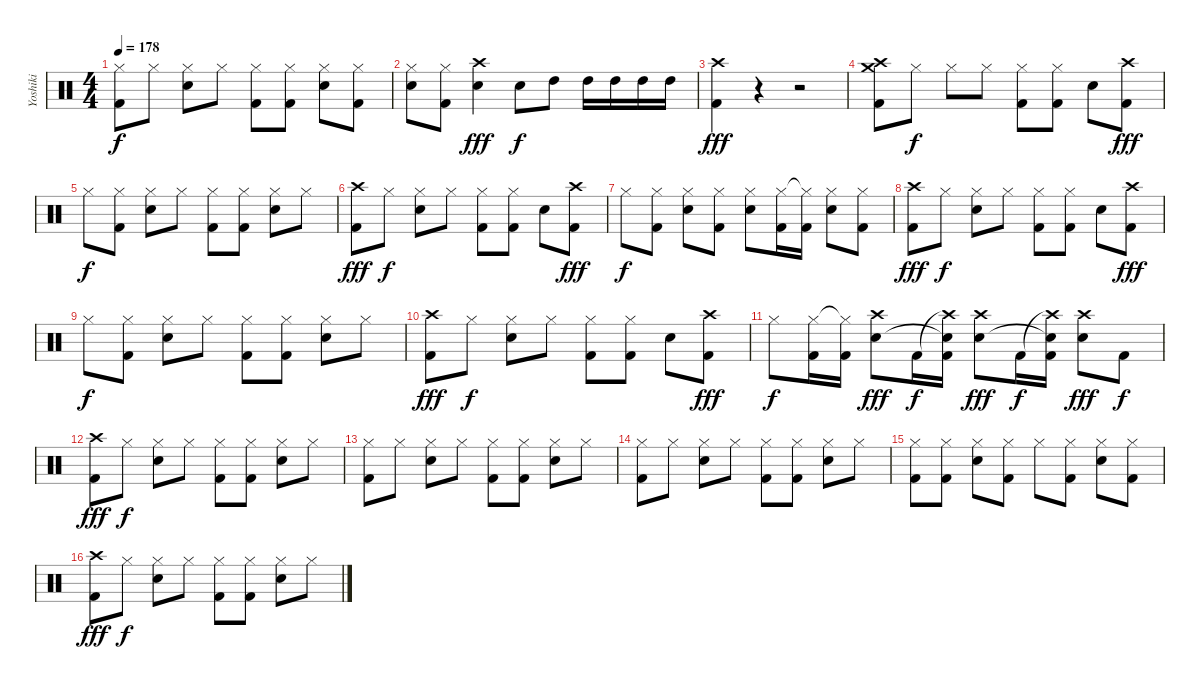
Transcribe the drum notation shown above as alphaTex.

\track ("Yoshiki" "Yoshiki") {instrument percussion}
\staff {score}
\articulation defaults
\ts (4 4)
\tempo 178
\clef neutral
\ks c
("Hi-Hat (closed)" "Kick (hit) 2").8{dy f} "Hi-Hat (closed)".8 ("Hi-Hat (closed)" "Snare (hit) 2").8 "Hi-Hat (closed)".8 ("Hi-Hat (closed)" "Kick (hit) 2").8 ("Hi-Hat (closed)" "Kick (hit) 2").8 ("Hi-Hat (closed)" "Snare (hit) 2").8 ("Hi-Hat (closed)" "Kick (hit) 2").8 |
("Hi-Hat (closed)" "Snare (hit) 2").8 ("Hi-Hat (closed)" "Kick (hit) 2").8 ("Crash high (hit)" "Snare (hit) 2").4{dy fff} "Snare (hit) 2".8{dy f} "High Tom (hit)".8 "High Tom (hit)".16 "High Tom (hit)".16 "High Tom (hit)".16 "High Tom (hit)".16 |
("Crash high (hit)" "Kick (hit) 2").4{dy fff} r.4 r.2 |
("Crash medium (hit)" "Crash high (hit)" "Kick (hit) 2").8 "Hi-Hat (closed)".8{dy f} "Hi-Hat (closed)".8 "Hi-Hat (closed)".8 ("Hi-Hat (closed)" "Kick (hit) 2").8 ("Hi-Hat (closed)" "Kick (hit) 2").8 "Snare (hit) 2".8 ("Crash high (hit)" "Kick (hit) 2").8{dy fff} |
"Hi-Hat (closed)".8{dy f} ("Hi-Hat (closed)" "Kick (hit) 2").8 ("Hi-Hat (closed)" "Snare (hit) 2").8 "Hi-Hat (closed)".8 ("Hi-Hat (closed)" "Kick (hit) 2").8 ("Hi-Hat (closed)" "Kick (hit) 2").8 ("Hi-Hat (closed)" "Snare (hit) 2").8 "Hi-Hat (closed)".8 |
("Crash high (hit)" "Kick (hit) 2").8{dy fff} "Hi-Hat (closed)".8{dy f} ("Hi-Hat (closed)" "Snare (hit) 2").8 "Hi-Hat (closed)".8 ("Hi-Hat (closed)" "Kick (hit) 2").8 ("Hi-Hat (closed)" "Kick (hit) 2").8 "Snare (hit) 2".8 ("Crash high (hit)" "Kick (hit) 2").8{dy fff} |
"Hi-Hat (closed)".8{dy f} ("Hi-Hat (closed)" "Kick (hit) 2").8 ("Hi-Hat (closed)" "Snare (hit) 2").8 ("Hi-Hat (closed)" "Kick (hit) 2").8 ("Hi-Hat (closed)" "Snare (hit) 2").8 ("Hi-Hat (closed)" "Kick (hit) 2").16 ("Hi-Hat (closed)"{t} "Kick (hit) 2").16 ("Hi-Hat (closed)" "Snare (hit) 2").8 ("Hi-Hat (closed)" "Kick (hit) 2").8 |
("Crash high (hit)" "Kick (hit) 2").8{dy fff} "Hi-Hat (closed)".8{dy f} ("Hi-Hat (closed)" "Snare (hit) 2").8 "Hi-Hat (closed)".8 ("Hi-Hat (closed)" "Kick (hit) 2").8 ("Hi-Hat (closed)" "Kick (hit) 2").8 "Snare (hit) 2".8 ("Crash high (hit)" "Kick (hit) 2").8{dy fff} |
"Hi-Hat (closed)".8{dy f} ("Hi-Hat (closed)" "Kick (hit) 2").8 ("Hi-Hat (closed)" "Snare (hit) 2").8 "Hi-Hat (closed)".8 ("Hi-Hat (closed)" "Kick (hit) 2").8 ("Hi-Hat (closed)" "Kick (hit) 2").8 ("Hi-Hat (closed)" "Snare (hit) 2").8 "Hi-Hat (closed)".8 |
("Crash high (hit)" "Kick (hit) 2").8{dy fff} "Hi-Hat (closed)".8{dy f} ("Hi-Hat (closed)" "Snare (hit) 2").8 "Hi-Hat (closed)".8 ("Hi-Hat (closed)" "Kick (hit) 2").8 ("Hi-Hat (closed)" "Kick (hit) 2").8 "Snare (hit) 2".8 ("Crash high (hit)" "Kick (hit) 2").8{dy fff} |
"Hi-Hat (closed)".8{dy f} ("Hi-Hat (closed)" "Kick (hit) 2").16 ("Hi-Hat (closed)"{t} "Kick (hit) 2").16 ("Crash high (hit)" "Snare (hit) 2").8{dy fff} "Kick (hit) 2".16{dy f} ("Crash high (hit)"{t} "Snare (hit) 2"{t} "Kick (hit) 2").16 ("Crash high (hit)" "Snare (hit) 2").8{dy fff} "Kick (hit) 2".16{dy f} ("Crash high (hit)"{t} "Snare (hit) 2"{t} "Kick (hit) 2").16 ("Crash high (hit)" "Snare (hit) 2").8{dy fff} "Kick (hit) 2".8{dy f} |
("Crash high (hit)" "Kick (hit) 2").8{dy fff} "Hi-Hat (closed)".8{dy f} ("Hi-Hat (closed)" "Snare (hit) 2").8 "Hi-Hat (closed)".8 ("Hi-Hat (closed)" "Kick (hit) 2").8 ("Hi-Hat (closed)" "Kick (hit) 2").8 ("Hi-Hat (closed)" "Snare (hit) 2").8 "Hi-Hat (closed)".8 |
("Hi-Hat (closed)" "Kick (hit) 2").8 "Hi-Hat (closed)".8 ("Hi-Hat (closed)" "Snare (hit) 2").8 "Hi-Hat (closed)".8 ("Hi-Hat (closed)" "Kick (hit) 2").8 ("Hi-Hat (closed)" "Kick (hit) 2").8 ("Hi-Hat (closed)" "Snare (hit) 2").8 "Hi-Hat (closed)".8 |
("Hi-Hat (closed)" "Kick (hit) 2").8 "Hi-Hat (closed)".8 ("Hi-Hat (closed)" "Snare (hit) 2").8 "Hi-Hat (closed)".8 ("Hi-Hat (closed)" "Kick (hit) 2").8 ("Hi-Hat (closed)" "Kick (hit) 2").8 ("Hi-Hat (closed)" "Snare (hit) 2").8 "Hi-Hat (closed)".8 |
("Hi-Hat (closed)" "Kick (hit) 2").8 ("Hi-Hat (closed)" "Kick (hit) 2").8 ("Hi-Hat (closed)" "Snare (hit) 2").8 ("Hi-Hat (closed)" "Kick (hit) 2").8 "Hi-Hat (closed)".8 ("Hi-Hat (closed)" "Kick (hit) 2").8 ("Hi-Hat (closed)" "Snare (hit) 2").8 ("Hi-Hat (closed)" "Kick (hit) 2").8 |
("Crash high (hit)" "Kick (hit) 2").8{dy fff} "Hi-Hat (closed)".8{dy f} ("Hi-Hat (closed)" "Snare (hit) 2").8 "Hi-Hat (closed)".8 ("Hi-Hat (closed)" "Kick (hit) 2").8 ("Hi-Hat (closed)" "Kick (hit) 2").8 ("Hi-Hat (closed)" "Snare (hit) 2").8 "Hi-Hat (closed)".8
